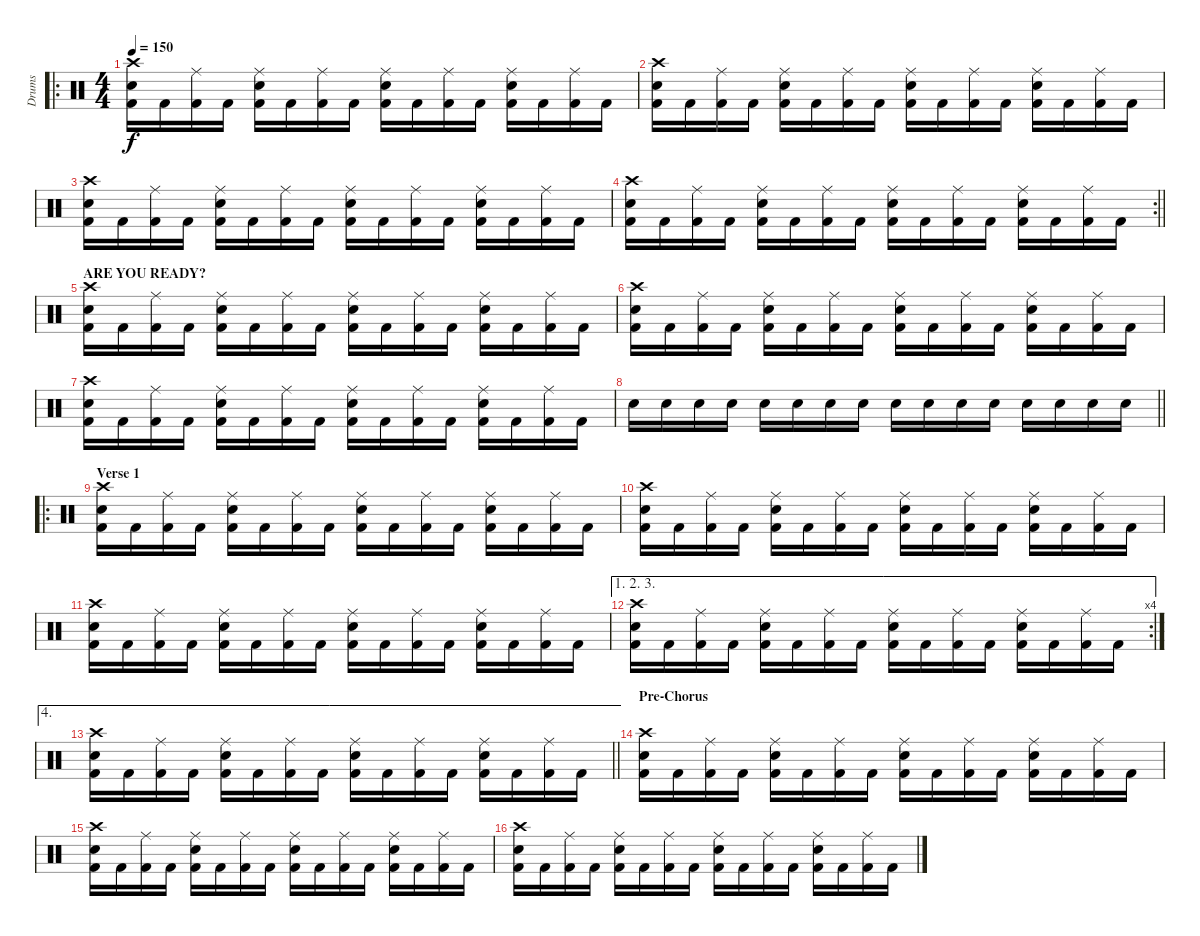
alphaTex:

\track ("Drums" "Drums") {instrument percussion}
\staff {score}
\articulation defaults
\ro
\ts (4 4)
\tempo 150
\clef neutral
\ks c
("Kick (hit) 2" "Snare (hit) 2" "Crash high (hit)").16{dy f} "Kick (hit) 2".16 ("Kick (hit) 2" "Ride (middle)").16 "Kick (hit) 2".16 ("Kick (hit) 2" "Snare (hit) 2" "Ride (middle)").16 "Kick (hit) 2".16 ("Kick (hit) 2" "Ride (middle)").16 "Kick (hit) 2".16 ("Kick (hit) 2" "Snare (hit) 2" "Ride (middle)").16 "Kick (hit) 2".16 ("Kick (hit) 2" "Ride (middle)").16 "Kick (hit) 2".16 ("Kick (hit) 2" "Snare (hit) 2" "Ride (middle)").16 "Kick (hit) 2".16 ("Kick (hit) 2" "Ride (middle)").16 "Kick (hit) 2".16 |
("Kick (hit) 2" "Snare (hit) 2" "Crash high (hit)").16 "Kick (hit) 2".16 ("Kick (hit) 2" "Ride (middle)").16 "Kick (hit) 2".16 ("Kick (hit) 2" "Snare (hit) 2" "Ride (middle)").16 "Kick (hit) 2".16 ("Kick (hit) 2" "Ride (middle)").16 "Kick (hit) 2".16 ("Kick (hit) 2" "Snare (hit) 2" "Ride (middle)").16 "Kick (hit) 2".16 ("Kick (hit) 2" "Ride (middle)").16 "Kick (hit) 2".16 ("Kick (hit) 2" "Snare (hit) 2" "Ride (middle)").16 "Kick (hit) 2".16 ("Kick (hit) 2" "Ride (middle)").16 "Kick (hit) 2".16 |
("Kick (hit) 2" "Snare (hit) 2" "Crash high (hit)").16 "Kick (hit) 2".16 ("Kick (hit) 2" "Ride (middle)").16 "Kick (hit) 2".16 ("Kick (hit) 2" "Snare (hit) 2" "Ride (middle)").16 "Kick (hit) 2".16 ("Kick (hit) 2" "Ride (middle)").16 "Kick (hit) 2".16 ("Kick (hit) 2" "Snare (hit) 2" "Ride (middle)").16 "Kick (hit) 2".16 ("Kick (hit) 2" "Ride (middle)").16 "Kick (hit) 2".16 ("Kick (hit) 2" "Snare (hit) 2" "Ride (middle)").16 "Kick (hit) 2".16 ("Kick (hit) 2" "Ride (middle)").16 "Kick (hit) 2".16 |
\rc 2
\barLineRight lightlight
("Kick (hit) 2" "Snare (hit) 2" "Crash high (hit)").16 "Kick (hit) 2".16 ("Kick (hit) 2" "Ride (middle)").16 "Kick (hit) 2".16 ("Kick (hit) 2" "Snare (hit) 2" "Ride (middle)").16 "Kick (hit) 2".16 ("Kick (hit) 2" "Ride (middle)").16 "Kick (hit) 2".16 ("Kick (hit) 2" "Snare (hit) 2" "Ride (middle)").16 "Kick (hit) 2".16 ("Kick (hit) 2" "Ride (middle)").16 "Kick (hit) 2".16 ("Kick (hit) 2" "Snare (hit) 2" "Ride (middle)").16 "Kick (hit) 2".16 ("Kick (hit) 2" "Ride (middle)").16 "Kick (hit) 2".16 |
\section ("" "ARE YOU READY?")
("Kick (hit) 2" "Snare (hit) 2" "Crash high (hit)").16 "Kick (hit) 2".16 ("Kick (hit) 2" "Ride (middle)").16 "Kick (hit) 2".16 ("Kick (hit) 2" "Snare (hit) 2" "Ride (middle)").16 "Kick (hit) 2".16 ("Kick (hit) 2" "Ride (middle)").16 "Kick (hit) 2".16 ("Kick (hit) 2" "Snare (hit) 2" "Ride (middle)").16 "Kick (hit) 2".16 ("Kick (hit) 2" "Ride (middle)").16 "Kick (hit) 2".16 ("Kick (hit) 2" "Snare (hit) 2" "Ride (middle)").16 "Kick (hit) 2".16 ("Kick (hit) 2" "Ride (middle)").16 "Kick (hit) 2".16 |
("Kick (hit) 2" "Snare (hit) 2" "Crash high (hit)").16 "Kick (hit) 2".16 ("Kick (hit) 2" "Ride (middle)").16 "Kick (hit) 2".16 ("Kick (hit) 2" "Snare (hit) 2" "Ride (middle)").16 "Kick (hit) 2".16 ("Kick (hit) 2" "Ride (middle)").16 "Kick (hit) 2".16 ("Kick (hit) 2" "Snare (hit) 2" "Ride (middle)").16 "Kick (hit) 2".16 ("Kick (hit) 2" "Ride (middle)").16 "Kick (hit) 2".16 ("Kick (hit) 2" "Snare (hit) 2" "Ride (middle)").16 "Kick (hit) 2".16 ("Kick (hit) 2" "Ride (middle)").16 "Kick (hit) 2".16 |
("Kick (hit) 2" "Snare (hit) 2" "Crash high (hit)").16 "Kick (hit) 2".16 ("Kick (hit) 2" "Ride (middle)").16 "Kick (hit) 2".16 ("Kick (hit) 2" "Snare (hit) 2" "Ride (middle)").16 "Kick (hit) 2".16 ("Kick (hit) 2" "Ride (middle)").16 "Kick (hit) 2".16 ("Kick (hit) 2" "Snare (hit) 2" "Ride (middle)").16 "Kick (hit) 2".16 ("Kick (hit) 2" "Ride (middle)").16 "Kick (hit) 2".16 ("Kick (hit) 2" "Snare (hit) 2" "Ride (middle)").16 "Kick (hit) 2".16 ("Kick (hit) 2" "Ride (middle)").16 "Kick (hit) 2".16 |
\barLineRight lightlight "Snare (hit) 2".16 "Snare (hit) 2".16 "Snare (hit) 2".16 "Snare (hit) 2".16 "Snare (hit) 2".16 "Snare (hit) 2".16 "Snare (hit) 2".16 "Snare (hit) 2".16 "Snare (hit) 2".16 "Snare (hit) 2".16 "Snare (hit) 2".16 "Snare (hit) 2".16 "Snare (hit) 2".16 "Snare (hit) 2".16 "Snare (hit) 2".16 "Snare (hit) 2".16
|
\ro
\section ("" "Verse 1")
("Kick (hit) 2" "Snare (hit) 2" "Crash high (hit)").16 "Kick (hit) 2".16 ("Kick (hit) 2" "Ride (middle)").16 "Kick (hit) 2".16 ("Kick (hit) 2" "Snare (hit) 2" "Ride (middle)").16 "Kick (hit) 2".16 ("Kick (hit) 2" "Ride (middle)").16 "Kick (hit) 2".16 ("Kick (hit) 2" "Snare (hit) 2" "Ride (middle)").16 "Kick (hit) 2".16 ("Kick (hit) 2" "Ride (middle)").16 "Kick (hit) 2".16 ("Kick (hit) 2" "Snare (hit) 2" "Ride (middle)").16 "Kick (hit) 2".16 ("Kick (hit) 2" "Ride (middle)").16 "Kick (hit) 2".16 |
("Kick (hit) 2" "Snare (hit) 2" "Crash high (hit)").16 "Kick (hit) 2".16 ("Kick (hit) 2" "Ride (middle)").16 "Kick (hit) 2".16 ("Kick (hit) 2" "Snare (hit) 2" "Ride (middle)").16 "Kick (hit) 2".16 ("Kick (hit) 2" "Ride (middle)").16 "Kick (hit) 2".16 ("Kick (hit) 2" "Snare (hit) 2" "Ride (middle)").16 "Kick (hit) 2".16 ("Kick (hit) 2" "Ride (middle)").16 "Kick (hit) 2".16 ("Kick (hit) 2" "Snare (hit) 2" "Ride (middle)").16 "Kick (hit) 2".16 ("Kick (hit) 2" "Ride (middle)").16 "Kick (hit) 2".16 |
("Kick (hit) 2" "Snare (hit) 2" "Crash high (hit)").16 "Kick (hit) 2".16 ("Kick (hit) 2" "Ride (middle)").16 "Kick (hit) 2".16 ("Kick (hit) 2" "Snare (hit) 2" "Ride (middle)").16 "Kick (hit) 2".16 ("Kick (hit) 2" "Ride (middle)").16 "Kick (hit) 2".16 ("Kick (hit) 2" "Snare (hit) 2" "Ride (middle)").16 "Kick (hit) 2".16 ("Kick (hit) 2" "Ride (middle)").16 "Kick (hit) 2".16 ("Kick (hit) 2" "Snare (hit) 2" "Ride (middle)").16 "Kick (hit) 2".16 ("Kick (hit) 2" "Ride (middle)").16 "Kick (hit) 2".16 |
\ae (1 2 3)
\rc 4
("Kick (hit) 2" "Snare (hit) 2" "Crash high (hit)").16 "Kick (hit) 2".16 ("Kick (hit) 2" "Ride (middle)").16 "Kick (hit) 2".16 ("Kick (hit) 2" "Snare (hit) 2" "Ride (middle)").16 "Kick (hit) 2".16 ("Kick (hit) 2" "Ride (middle)").16 "Kick (hit) 2".16 ("Kick (hit) 2" "Snare (hit) 2" "Ride (middle)").16 "Kick (hit) 2".16 ("Kick (hit) 2" "Ride (middle)").16 "Kick (hit) 2".16 ("Kick (hit) 2" "Snare (hit) 2" "Ride (middle)").16 "Kick (hit) 2".16 ("Kick (hit) 2" "Ride (middle)").16 "Kick (hit) 2".16 |
\ae 4
\barLineRight lightlight
("Kick (hit) 2" "Snare (hit) 2" "Crash high (hit)").16 "Kick (hit) 2".16 ("Kick (hit) 2" "Ride (middle)").16 "Kick (hit) 2".16 ("Kick (hit) 2" "Snare (hit) 2" "Ride (middle)").16 "Kick (hit) 2".16 ("Kick (hit) 2" "Ride (middle)").16 "Kick (hit) 2".16 ("Kick (hit) 2" "Snare (hit) 2" "Ride (middle)").16 "Kick (hit) 2".16 ("Kick (hit) 2" "Ride (middle)").16 "Kick (hit) 2".16 ("Kick (hit) 2" "Snare (hit) 2" "Ride (middle)").16 "Kick (hit) 2".16 ("Kick (hit) 2" "Ride (middle)").16 "Kick (hit) 2".16 |
\section ("" "Pre-Chorus")
("Kick (hit) 2" "Snare (hit) 2" "Crash high (hit)").16 "Kick (hit) 2".16 ("Kick (hit) 2" "Ride (middle)").16 "Kick (hit) 2".16 ("Kick (hit) 2" "Snare (hit) 2" "Ride (middle)").16 "Kick (hit) 2".16 ("Kick (hit) 2" "Ride (middle)").16 "Kick (hit) 2".16 ("Kick (hit) 2" "Snare (hit) 2" "Ride (middle)").16 "Kick (hit) 2".16 ("Kick (hit) 2" "Ride (middle)").16 "Kick (hit) 2".16 ("Kick (hit) 2" "Snare (hit) 2" "Ride (middle)").16 "Kick (hit) 2".16 ("Kick (hit) 2" "Ride (middle)").16 "Kick (hit) 2".16 |
("Kick (hit) 2" "Snare (hit) 2" "Crash high (hit)").16 "Kick (hit) 2".16 ("Kick (hit) 2" "Ride (middle)").16 "Kick (hit) 2".16 ("Kick (hit) 2" "Snare (hit) 2" "Ride (middle)").16 "Kick (hit) 2".16 ("Kick (hit) 2" "Ride (middle)").16 "Kick (hit) 2".16 ("Kick (hit) 2" "Snare (hit) 2" "Ride (middle)").16 "Kick (hit) 2".16 ("Kick (hit) 2" "Ride (middle)").16 "Kick (hit) 2".16 ("Kick (hit) 2" "Snare (hit) 2" "Ride (middle)").16 "Kick (hit) 2".16 ("Kick (hit) 2" "Ride (middle)").16 "Kick (hit) 2".16 |
("Kick (hit) 2" "Snare (hit) 2" "Crash high (hit)").16 "Kick (hit) 2".16 ("Kick (hit) 2" "Ride (middle)").16 "Kick (hit) 2".16 ("Kick (hit) 2" "Snare (hit) 2" "Ride (middle)").16 "Kick (hit) 2".16 ("Kick (hit) 2" "Ride (middle)").16 "Kick (hit) 2".16 ("Kick (hit) 2" "Snare (hit) 2" "Ride (middle)").16 "Kick (hit) 2".16 ("Kick (hit) 2" "Ride (middle)").16 "Kick (hit) 2".16 ("Kick (hit) 2" "Snare (hit) 2" "Ride (middle)").16 "Kick (hit) 2".16 ("Kick (hit) 2" "Ride (middle)").16 "Kick (hit) 2".16
